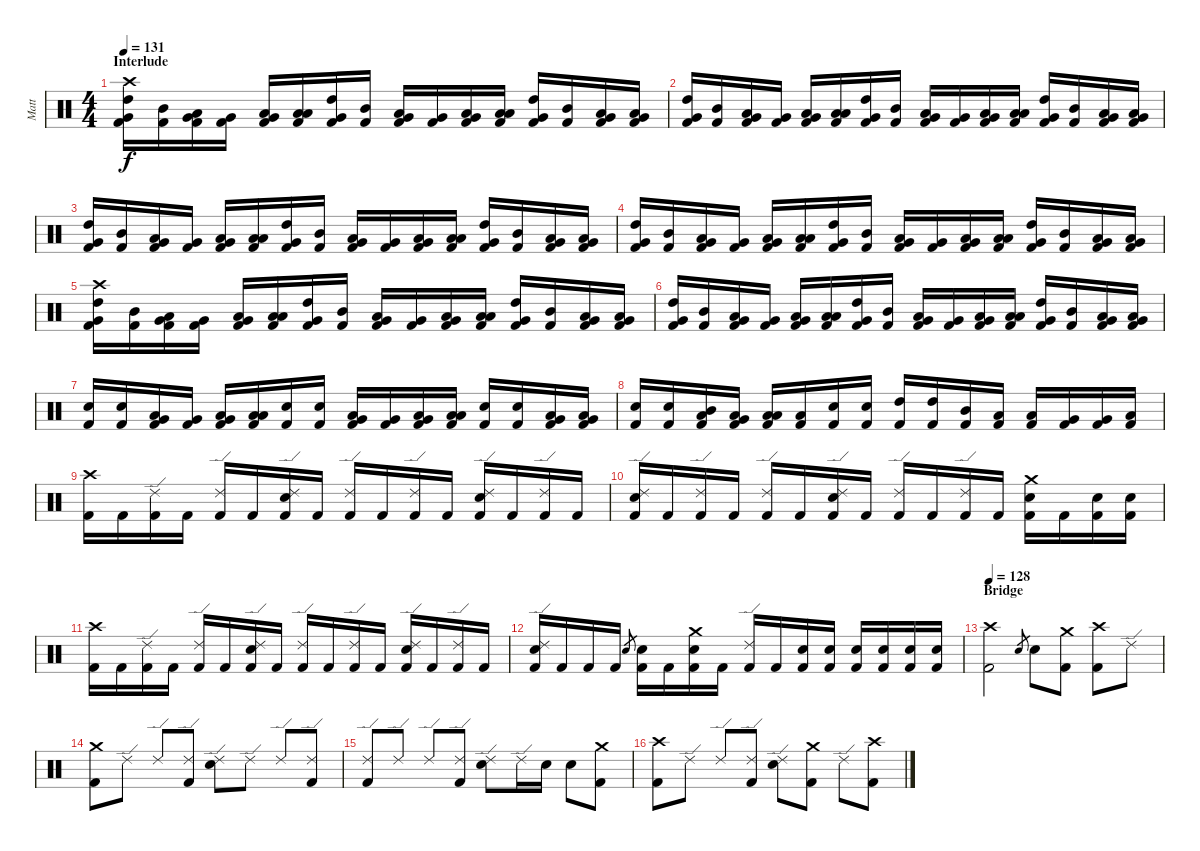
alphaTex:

\track ("Matt" "Matt") {instrument percussion}
\staff {score}
\articulation defaults
\ts (4 4)
\section ("" "Interlude")
\tempo 131
\clef neutral
\ks c
("Crash high (hit)" "High Tom (hit)" "Very Low Tom (hit)" "Kick (hit) 2").16{dy f} ("Mid Tom (hit)" "Kick (hit) 2").16 ("Low Tom (hit)" "Very Low Tom (hit)" "Kick (hit) 2").16 ("Very Low Tom (hit)" "Kick (hit) 2").16 ("Low Floor Tom (hit)" "Very Low Tom (hit)" "Kick (hit) 2").16 ("Low Floor Tom (hit)" "Low Tom (hit)" "Kick (hit) 2").16 ("High Tom (hit)" "Very Low Tom (hit)" "Kick (hit) 2").16 ("Mid Tom (hit)" "Kick (hit) 2").16 ("Low Tom (hit)" "Very Low Tom (hit)" "Kick (hit) 2").16 ("Very Low Tom (hit)" "Kick (hit) 2").16 ("Low Floor Tom (hit)" "Very Low Tom (hit)" "Kick (hit) 2").16 ("Low Floor Tom (hit)" "Low Tom (hit)" "Kick (hit) 2").16 ("High Tom (hit)" "Very Low Tom (hit)" "Kick (hit) 2").16 ("Mid Tom (hit)" "Kick (hit) 2").16 ("Low Tom (hit)" "Very Low Tom (hit)" "Kick (hit) 2").16 ("Very Low Tom (hit)" "Low Tom (hit)" "Kick (hit) 2").16 |
("High Tom (hit)" "Very Low Tom (hit)" "Kick (hit) 2").16 ("Mid Tom (hit)" "Kick (hit) 2").16 ("Low Tom (hit)" "Very Low Tom (hit)" "Kick (hit) 2").16 ("Very Low Tom (hit)" "Kick (hit) 2").16 ("Low Floor Tom (hit)" "Very Low Tom (hit)" "Kick (hit) 2").16 ("Low Floor Tom (hit)" "Low Tom (hit)" "Kick (hit) 2").16 ("High Tom (hit)" "Very Low Tom (hit)" "Kick (hit) 2").16 ("Mid Tom (hit)" "Kick (hit) 2").16 ("Low Tom (hit)" "Very Low Tom (hit)" "Kick (hit) 2").16 ("Very Low Tom (hit)" "Kick (hit) 2").16 ("Low Floor Tom (hit)" "Very Low Tom (hit)" "Kick (hit) 2").16 ("Low Floor Tom (hit)" "Low Tom (hit)" "Kick (hit) 2").16 ("High Tom (hit)" "Very Low Tom (hit)" "Kick (hit) 2").16 ("Mid Tom (hit)" "Kick (hit) 2").16 ("Low Tom (hit)" "Very Low Tom (hit)" "Kick (hit) 2").16 ("Very Low Tom (hit)" "Low Tom (hit)" "Kick (hit) 2").16 |
("High Tom (hit)" "Very Low Tom (hit)" "Kick (hit) 2").16 ("Mid Tom (hit)" "Kick (hit) 2").16 ("Low Tom (hit)" "Very Low Tom (hit)" "Kick (hit) 2").16 ("Very Low Tom (hit)" "Kick (hit) 2").16 ("Low Floor Tom (hit)" "Very Low Tom (hit)" "Kick (hit) 2").16 ("Low Floor Tom (hit)" "Low Tom (hit)" "Kick (hit) 2").16 ("High Tom (hit)" "Very Low Tom (hit)" "Kick (hit) 2").16 ("Mid Tom (hit)" "Kick (hit) 2").16 ("Low Tom (hit)" "Very Low Tom (hit)" "Kick (hit) 2").16 ("Very Low Tom (hit)" "Kick (hit) 2").16 ("Low Floor Tom (hit)" "Very Low Tom (hit)" "Kick (hit) 2").16 ("Low Floor Tom (hit)" "Low Tom (hit)" "Kick (hit) 2").16 ("High Tom (hit)" "Very Low Tom (hit)" "Kick (hit) 2").16 ("Mid Tom (hit)" "Kick (hit) 2").16 ("Low Tom (hit)" "Very Low Tom (hit)" "Kick (hit) 2").16 ("Very Low Tom (hit)" "Low Tom (hit)" "Kick (hit) 2").16 |
("High Tom (hit)" "Very Low Tom (hit)" "Kick (hit) 2").16 ("Mid Tom (hit)" "Kick (hit) 2").16 ("Low Tom (hit)" "Very Low Tom (hit)" "Kick (hit) 2").16 ("Very Low Tom (hit)" "Kick (hit) 2").16 ("Low Floor Tom (hit)" "Very Low Tom (hit)" "Kick (hit) 2").16 ("Low Floor Tom (hit)" "Low Tom (hit)" "Kick (hit) 2").16 ("High Tom (hit)" "Very Low Tom (hit)" "Kick (hit) 2").16 ("Mid Tom (hit)" "Kick (hit) 2").16 ("Low Tom (hit)" "Very Low Tom (hit)" "Kick (hit) 2").16 ("Very Low Tom (hit)" "Kick (hit) 2").16 ("Low Floor Tom (hit)" "Very Low Tom (hit)" "Kick (hit) 2").16 ("Low Floor Tom (hit)" "Low Tom (hit)" "Kick (hit) 2").16 ("High Tom (hit)" "Very Low Tom (hit)" "Kick (hit) 2").16 ("Mid Tom (hit)" "Kick (hit) 2").16 ("Low Tom (hit)" "Very Low Tom (hit)" "Kick (hit) 2").16 ("Very Low Tom (hit)" "Low Tom (hit)" "Kick (hit) 2").16 |
("Crash high (hit)" "High Tom (hit)" "Very Low Tom (hit)" "Kick (hit) 2").16 ("Mid Tom (hit)" "Kick (hit) 2").16 ("Low Tom (hit)" "Very Low Tom (hit)" "Kick (hit) 2").16 ("Very Low Tom (hit)" "Kick (hit) 2").16 ("Low Floor Tom (hit)" "Very Low Tom (hit)" "Kick (hit) 2").16 ("Low Floor Tom (hit)" "Low Tom (hit)" "Kick (hit) 2").16 ("High Tom (hit)" "Very Low Tom (hit)" "Kick (hit) 2").16 ("Mid Tom (hit)" "Kick (hit) 2").16 ("Low Tom (hit)" "Very Low Tom (hit)" "Kick (hit) 2").16 ("Very Low Tom (hit)" "Kick (hit) 2").16 ("Low Floor Tom (hit)" "Very Low Tom (hit)" "Kick (hit) 2").16 ("Low Floor Tom (hit)" "Low Tom (hit)" "Kick (hit) 2").16 ("High Tom (hit)" "Very Low Tom (hit)" "Kick (hit) 2").16 ("Mid Tom (hit)" "Kick (hit) 2").16 ("Low Tom (hit)" "Very Low Tom (hit)" "Kick (hit) 2").16 ("Very Low Tom (hit)" "Low Tom (hit)" "Kick (hit) 2").16 |
("High Tom (hit)" "Very Low Tom (hit)" "Kick (hit) 2").16 ("Mid Tom (hit)" "Kick (hit) 2").16 ("Low Tom (hit)" "Very Low Tom (hit)" "Kick (hit) 2").16 ("Very Low Tom (hit)" "Kick (hit) 2").16 ("Low Floor Tom (hit)" "Very Low Tom (hit)" "Kick (hit) 2").16 ("Low Floor Tom (hit)" "Low Tom (hit)" "Kick (hit) 2").16 ("High Tom (hit)" "Very Low Tom (hit)" "Kick (hit) 2").16 ("Mid Tom (hit)" "Kick (hit) 2").16 ("Low Tom (hit)" "Very Low Tom (hit)" "Kick (hit) 2").16 ("Very Low Tom (hit)" "Kick (hit) 2").16 ("Low Floor Tom (hit)" "Very Low Tom (hit)" "Kick (hit) 2").16 ("Low Floor Tom (hit)" "Low Tom (hit)" "Kick (hit) 2").16 ("High Tom (hit)" "Very Low Tom (hit)" "Kick (hit) 2").16 ("Mid Tom (hit)" "Kick (hit) 2").16 ("Low Tom (hit)" "Very Low Tom (hit)" "Kick (hit) 2").16 ("Very Low Tom (hit)" "Low Tom (hit)" "Kick (hit) 2").16 |
("Electric Snare (hit)" "Kick (hit) 2").16 ("Electric Snare (hit)" "Kick (hit) 2").16 ("Low Tom (hit)" "Very Low Tom (hit)" "Kick (hit) 2").16 ("Very Low Tom (hit)" "Kick (hit) 2").16 ("Low Floor Tom (hit)" "Very Low Tom (hit)" "Kick (hit) 2").16 ("Low Floor Tom (hit)" "Low Tom (hit)" "Kick (hit) 2").16 ("Electric Snare (hit)" "Kick (hit) 2").16 ("Electric Snare (hit)" "Kick (hit) 2").16 ("Low Tom (hit)" "Very Low Tom (hit)" "Kick (hit) 2").16 ("Very Low Tom (hit)" "Kick (hit) 2").16 ("Low Floor Tom (hit)" "Very Low Tom (hit)" "Kick (hit) 2").16 ("Low Floor Tom (hit)" "Low Tom (hit)" "Kick (hit) 2").16 ("Electric Snare (hit)" "Kick (hit) 2").16 ("Electric Snare (hit)" "Kick (hit) 2").16 ("Low Tom (hit)" "Very Low Tom (hit)" "Kick (hit) 2").16 ("Very Low Tom (hit)" "Low Tom (hit)" "Kick (hit) 2").16 |
("Electric Snare (hit)" "Kick (hit) 2").16 ("Electric Snare (hit)" "Kick (hit) 2").16 ("Mid Tom (hit)" "Low Tom (hit)" "Kick (hit) 2").16 ("Low Tom (hit)" "Very Low Tom (hit)" "Kick (hit) 2").16 ("Low Floor Tom (hit)" "Low Tom (hit)" "Kick (hit) 2").16 ("Low Floor Tom (hit)" "Kick (hit) 2").16 ("Electric Snare (hit)" "Kick (hit) 2").16 ("Electric Snare (hit)" "Kick (hit) 2").16 ("High Tom (hit)" "Kick (hit) 2").16 ("High Tom (hit)" "Kick (hit) 2").16 ("Mid Tom (hit)" "Kick (hit) 2").16 ("Low Tom (hit)" "Kick (hit) 2").16 ("Low Tom (hit)" "Kick (hit) 2").16 ("Very Low Tom (hit)" "Kick (hit) 2").16 ("Very Low Tom (hit)" "Kick (hit) 2").16 ("Low Floor Tom (hit)" "Kick (hit) 2").16 |
("Crash high (hit)" "Kick (hit) 2").16 "Kick (hit) 2".16 ("Ride (edge) 2" "Kick (hit) 2").16 "Kick (hit) 2".16 ("Ride (edge) 2" "Kick (hit) 2").16 "Kick (hit) 2".16 ("Ride (edge) 2" "Electric Snare (hit)" "Kick (hit) 2").16 "Kick (hit) 2".16 ("Ride (edge) 2" "Kick (hit) 2").16 "Kick (hit) 2".16 ("Ride (edge) 2" "Kick (hit) 2").16 "Kick (hit) 2".16 ("Ride (edge) 2" "Electric Snare (hit)" "Kick (hit) 2").16 "Kick (hit) 2".16 ("Ride (edge) 2" "Kick (hit) 2").16 "Kick (hit) 2".16 |
("Ride (edge) 2" "Electric Snare (hit)" "Kick (hit) 2").16 "Kick (hit) 2".16 ("Ride (edge) 2" "Kick (hit) 2").16 "Kick (hit) 2".16 ("Ride (edge) 2" "Kick (hit) 2").16 "Kick (hit) 2".16 ("Ride (edge) 2" "Electric Snare (hit)" "Kick (hit) 2").16 "Kick (hit) 2".16 ("Ride (edge) 2" "Kick (hit) 2").16 "Kick (hit) 2".16 ("Ride (edge) 2" "Kick (hit) 2").16 "Kick (hit) 2".16 ("Crash medium (hit)" "Electric Snare (hit)" "Kick (hit) 2").16 "Kick (hit) 2".16 ("Electric Snare (hit)" "Kick (hit) 2").16 ("Electric Snare (hit)" "Kick (hit) 2").16 |
("Crash high (hit)" "Kick (hit) 2").16 "Kick (hit) 2".16 ("Ride (edge) 2" "Kick (hit) 2").16 "Kick (hit) 2".16 ("Ride (edge) 2" "Kick (hit) 2").16 "Kick (hit) 2".16 ("Ride (edge) 2" "Electric Snare (hit)" "Kick (hit) 2").16 "Kick (hit) 2".16 ("Ride (edge) 2" "Kick (hit) 2").16 "Kick (hit) 2".16 ("Ride (edge) 2" "Kick (hit) 2").16 "Kick (hit) 2".16 ("Ride (edge) 2" "Electric Snare (hit)" "Kick (hit) 2").16 "Kick (hit) 2".16 ("Ride (edge) 2" "Kick (hit) 2").16 "Kick (hit) 2".16 |
("Ride (edge) 2" "Electric Snare (hit)" "Kick (hit) 2").16 "Kick (hit) 2".16 "Kick (hit) 2".16 "Kick (hit) 2".16 "Electric Snare (hit)".8{gr} ("Electric Snare (hit)" "Kick (hit) 2").16 "Kick (hit) 2".16 ("Crash medium (hit)" "Electric Snare (hit)" "Kick (hit) 2").16 "Kick (hit) 2".16 ("Ride (edge) 2" "Kick (hit) 2").16 "Kick (hit) 2".16 ("Electric Snare (hit)" "Kick (hit) 2").16 ("Electric Snare (hit)" "Kick (hit) 2").16 ("Electric Snare (hit)" "Kick (hit) 2").16 ("Electric Snare (hit)" "Kick (hit) 2").16 ("Electric Snare (hit)" "Kick (hit) 2").16 ("Electric Snare (hit)" "Kick (hit) 2").16 |
\section ("" "Bridge")
\tempo 128
("Crash high (hit)" "Kick (hit) 2").2 "Electric Snare (hit)".8{gr} "Electric Snare (hit)".8 ("Crash medium (hit)" "Kick (hit) 2").8 ("Crash high (hit)" "Kick (hit) 2").8 "Ride (edge) 2".8 |
("Crash medium (hit)" "Kick (hit) 2").8 "Ride (edge) 2".8 "Ride (edge) 2".8 ("Ride (edge) 2" "Kick (hit) 2").8 ("Ride (edge) 2" "Electric Snare (hit)").8 "Ride (edge) 2".8 "Ride (edge) 2".8 ("Ride (edge) 2" "Kick (hit) 2").8 |
("Ride (edge) 2" "Kick (hit) 2").8 "Ride (edge) 2".8 "Ride (edge) 2".8 ("Ride (edge) 2" "Kick (hit) 2").8 ("Ride (edge) 2" "Electric Snare (hit)").8 "Ride (edge) 2".16 "Electric Snare (hit)".16 "Electric Snare (hit)".8 ("Crash medium (hit)" "Kick (hit) 2").8 |
("Crash high (hit)" "Kick (hit) 2").8 "Ride (edge) 2".8 "Ride (edge) 2".8 ("Ride (edge) 2" "Kick (hit) 2").8 ("Ride (edge) 2" "Electric Snare (hit)").8 ("Crash medium (hit)" "Kick (hit) 2").8 "Ride (edge) 2".8 ("Crash high (hit)" "Kick (hit) 2").8
